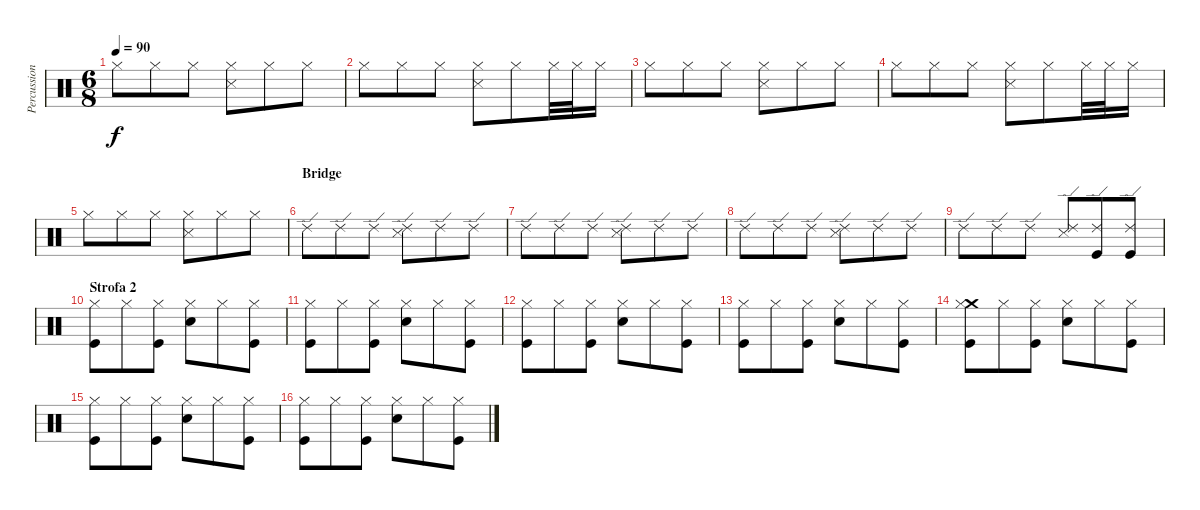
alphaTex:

\track ("Percussioni" "Percussion") {instrument percussion}
\staff {score}
\articulation defaults
\ts (6 8)
\tempo 90
\clef neutral
\ks c "Hi-Hat (closed)".8{dy f} "Hi-Hat (closed)".8 "Hi-Hat (closed)".8
("Hi-Hat (closed)" "Snare (side stick) 3").8 "Hi-Hat (closed)".8 "Hi-Hat (closed)".8 |
"Hi-Hat (closed)".8 "Hi-Hat (closed)".8 "Hi-Hat (closed)".8 ("Hi-Hat (closed)" "Snare (side stick) 3").8 "Hi-Hat (closed)".8 "Hi-Hat (closed)".32 "Hi-Hat (closed)".32 "Hi-Hat (closed)".16 |
"Hi-Hat (closed)".8 "Hi-Hat (closed)".8 "Hi-Hat (closed)".8 ("Hi-Hat (closed)" "Snare (side stick) 3").8 "Hi-Hat (closed)".8 "Hi-Hat (closed)".8 |
"Hi-Hat (closed)".8 "Hi-Hat (closed)".8 "Hi-Hat (closed)".8 ("Hi-Hat (closed)" "Snare (side stick) 3").8 "Hi-Hat (closed)".8 "Hi-Hat (closed)".32 "Hi-Hat (closed)".32 "Hi-Hat (closed)".16 |
"Hi-Hat (closed)".8 "Hi-Hat (closed)".8 "Hi-Hat (closed)".8 ("Hi-Hat (closed)" "Snare (side stick) 3").8 "Hi-Hat (closed)".8 "Hi-Hat (closed)".8 |
\section ("" "Bridge")
"Ride (edge) 2".8 "Ride (edge) 2".8 "Ride (edge) 2".8 ("Ride (edge) 2" "Snare (side stick) 3").8 "Ride (edge) 2".8 "Ride (edge) 2".8 |
"Ride (edge) 2".8 "Ride (edge) 2".8 "Ride (edge) 2".8 ("Ride (edge) 2" "Snare (side stick) 3").8 "Ride (edge) 2".8 "Ride (edge) 2".8 |
"Ride (edge) 2".8 "Ride (edge) 2".8 "Ride (edge) 2".8 ("Ride (edge) 2" "Snare (side stick) 3").8 "Ride (edge) 2".8 "Ride (edge) 2".8 |
"Ride (edge) 2".8 "Ride (edge) 2".8 "Ride (edge) 2".8 ("Ride (edge) 2" "Snare (side stick) 3").8 ("Ride (edge) 2" "Kick (hit)").8 ("Ride (edge) 2" "Kick (hit)").8 |
\section ("" "Strofa 2")
("Hi-Hat (closed)" "Kick (hit)").8 "Hi-Hat (closed)".8 ("Hi-Hat (closed)" "Kick (hit)").8 ("Hi-Hat (closed)" "Snare (hit) 2").8 "Hi-Hat (closed)".8 ("Hi-Hat (closed)" "Kick (hit)").8 |
("Hi-Hat (closed)" "Kick (hit)").8 "Hi-Hat (closed)".8 ("Hi-Hat (closed)" "Kick (hit)").8 ("Hi-Hat (closed)" "Snare (hit) 2").8 "Hi-Hat (closed)".8 ("Hi-Hat (closed)" "Kick (hit)").8 |
("Hi-Hat (closed)" "Kick (hit)").8 "Hi-Hat (closed)".8 ("Hi-Hat (closed)" "Kick (hit)").8 ("Hi-Hat (closed)" "Snare (hit) 2").8 "Hi-Hat (closed)".8 ("Hi-Hat (closed)" "Kick (hit)").8 |
("Hi-Hat (closed)" "Kick (hit)").8 "Hi-Hat (closed)".8 ("Hi-Hat (closed)" "Kick (hit)").8 ("Hi-Hat (closed)" "Snare (hit) 2").8 "Hi-Hat (closed)".8 ("Hi-Hat (closed)" "Kick (hit)").8 |
("Crash medium (hit)" "Hi-Hat (closed)" "Kick (hit)").8 "Hi-Hat (closed)".8 ("Hi-Hat (closed)" "Kick (hit)").8 ("Hi-Hat (closed)" "Snare (hit) 2").8 "Hi-Hat (closed)".8 ("Hi-Hat (closed)" "Kick (hit)").8 |
("Hi-Hat (closed)" "Kick (hit)").8 "Hi-Hat (closed)".8 ("Hi-Hat (closed)" "Kick (hit)").8 ("Hi-Hat (closed)" "Snare (hit) 2").8 "Hi-Hat (closed)".8 ("Hi-Hat (closed)" "Kick (hit)").8 |
("Hi-Hat (closed)" "Kick (hit)").8 "Hi-Hat (closed)".8 ("Hi-Hat (closed)" "Kick (hit)").8 ("Hi-Hat (closed)" "Snare (hit) 2").8 "Hi-Hat (closed)".8 ("Hi-Hat (closed)" "Kick (hit)").8
